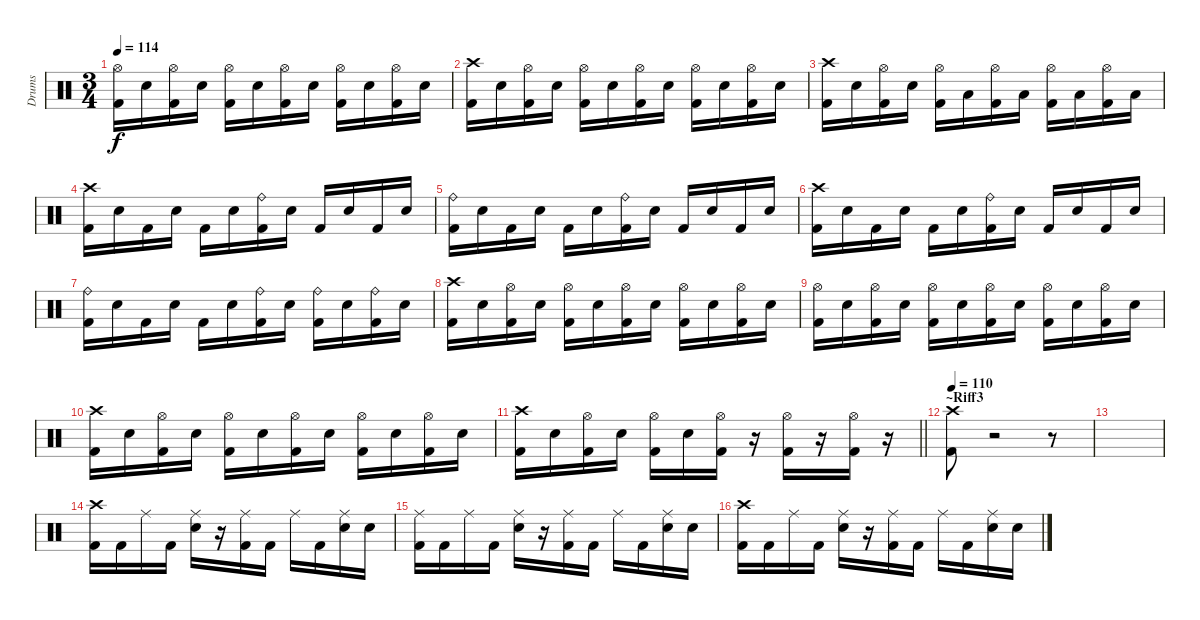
\track ("Drums" "Drums") {instrument percussion}
\staff {score}
\articulation defaults
\ts (3 4)
\tempo 114
\clef neutral
\ks c
("Hi-Hat (open)" "Kick (hit) 2").16{dy f} "Snare (hit) 2".16 ("Hi-Hat (open)" "Kick (hit) 2").16 "Snare (hit) 2".16 ("Hi-Hat (open)" "Kick (hit) 2").16 "Snare (hit) 2".16 ("Hi-Hat (open)" "Kick (hit) 2").16 "Snare (hit) 2".16 ("Hi-Hat (open)" "Kick (hit) 2").16 "Snare (hit) 2".16 ("Hi-Hat (open)" "Kick (hit) 2").16 "Snare (hit) 2".16 |
("Crash high (hit)" "Kick (hit) 2").16 "Snare (hit) 2".16 ("Hi-Hat (open)" "Kick (hit) 2").16 "Snare (hit) 2".16 ("Hi-Hat (open)" "Kick (hit) 2").16 "Snare (hit) 2".16 ("Hi-Hat (open)" "Kick (hit) 2").16 "Snare (hit) 2".16 ("Hi-Hat (open)" "Kick (hit) 2").16 "Snare (hit) 2".16 ("Hi-Hat (open)" "Kick (hit) 2").16 "Snare (hit) 2".16 |
("Crash high (hit)" "Kick (hit) 2").16 "Snare (hit) 2".16 ("Hi-Hat (open)" "Kick (hit) 2").16 "Snare (hit) 2".16 ("Hi-Hat (open)" "Kick (hit) 2").16 "Low Tom (hit)".16 ("Hi-Hat (open)" "Kick (hit) 2").16 "Low Tom (hit)".16 ("Hi-Hat (open)" "Kick (hit) 2").16 "Low Tom (hit)".16 ("Hi-Hat (open)" "Kick (hit) 2").16 "Low Tom (hit)".16 |
("Crash high (hit)" "Kick (hit) 2").16 "Snare (hit) 2".16 "Kick (hit) 2".16 "Snare (hit) 2".16 "Kick (hit) 2".16 "Snare (hit) 2".16 ("Ride (bell)" "Kick (hit) 2").16 "Snare (hit) 2".16 "Kick (hit) 2".16 "Snare (hit) 2".16 "Kick (hit) 2".16 "Snare (hit) 2".16 |
("Ride (bell)" "Kick (hit) 2").16 "Snare (hit) 2".16 "Kick (hit) 2".16 "Snare (hit) 2".16 "Kick (hit) 2".16 "Snare (hit) 2".16 ("Ride (bell)" "Kick (hit) 2").16 "Snare (hit) 2".16 "Kick (hit) 2".16 "Snare (hit) 2".16 "Kick (hit) 2".16 "Snare (hit) 2".16 |
("Crash high (hit)" "Kick (hit) 2").16 "Snare (hit) 2".16 "Kick (hit) 2".16 "Snare (hit) 2".16 "Kick (hit) 2".16 "Snare (hit) 2".16 ("Ride (bell)" "Kick (hit) 2").16 "Snare (hit) 2".16 "Kick (hit) 2".16 "Snare (hit) 2".16 "Kick (hit) 2".16 "Snare (hit) 2".16 |
("Ride (bell)" "Kick (hit) 2").16 "Snare (hit) 2".16 "Kick (hit) 2".16 "Snare (hit) 2".16 "Kick (hit) 2".16 "Snare (hit) 2".16 ("Ride (bell)" "Kick (hit) 2").16 "Snare (hit) 2".16 ("Ride (bell)" "Kick (hit) 2").16 "Snare (hit) 2".16 ("Ride (bell)" "Kick (hit) 2").16 "Snare (hit) 2".16 |
("Crash high (hit)" "Kick (hit) 2").16 "Snare (hit) 2".16 ("Hi-Hat (open)" "Kick (hit) 2").16 "Snare (hit) 2".16 ("Hi-Hat (open)" "Kick (hit) 2").16 "Snare (hit) 2".16 ("Hi-Hat (open)" "Kick (hit) 2").16 "Snare (hit) 2".16 ("Hi-Hat (open)" "Kick (hit) 2").16 "Snare (hit) 2".16 ("Hi-Hat (open)" "Kick (hit) 2").16 "Snare (hit) 2".16 |
("Hi-Hat (open)" "Kick (hit) 2").16 "Snare (hit) 2".16 ("Hi-Hat (open)" "Kick (hit) 2").16 "Snare (hit) 2".16 ("Hi-Hat (open)" "Kick (hit) 2").16 "Snare (hit) 2".16 ("Hi-Hat (open)" "Kick (hit) 2").16 "Snare (hit) 2".16 ("Hi-Hat (open)" "Kick (hit) 2").16 "Snare (hit) 2".16 ("Hi-Hat (open)" "Kick (hit) 2").16 "Snare (hit) 2".16 |
("Crash high (hit)" "Kick (hit) 2").16 "Snare (hit) 2".16 ("Hi-Hat (open)" "Kick (hit) 2").16 "Snare (hit) 2".16 ("Hi-Hat (open)" "Kick (hit) 2").16 "Snare (hit) 2".16 ("Hi-Hat (open)" "Kick (hit) 2").16 "Snare (hit) 2".16 ("Hi-Hat (open)" "Kick (hit) 2").16 "Snare (hit) 2".16 ("Hi-Hat (open)" "Kick (hit) 2").16 "Snare (hit) 2".16 |
\barLineRight lightlight
("Crash high (hit)" "Kick (hit) 2").16 "Snare (hit) 2".16 ("Hi-Hat (open)" "Kick (hit) 2").16 "Snare (hit) 2".16 ("Hi-Hat (open)" "Kick (hit) 2").16 "Snare (hit) 2".16 ("Hi-Hat (open)" "Kick (hit) 2").16 r.16 ("Hi-Hat (open)" "Kick (hit) 2").16 r.16 ("Hi-Hat (open)" "Kick (hit) 2").16 r.16 |
\section ("" "~Riff3")
\tempo 110
("Crash high (hit)" "Kick (hit) 2").8 r.2 r.8 |
|
("Crash high (hit)" "Kick (hit) 2").16 "Kick (hit) 2".16 "Ride (middle)".16 "Kick (hit) 2".16 ("Ride (middle)" "Snare (hit) 2").16 r.16 ("Ride (middle)" "Kick (hit) 2").16 "Kick (hit) 2".16 "Ride (middle)".16 "Kick (hit) 2".16 ("Ride (middle)" "Snare (hit) 2").16 "Snare (hit) 2".16 |
("Ride (middle)" "Kick (hit) 2").16 "Kick (hit) 2".16 "Ride (middle)".16 "Kick (hit) 2".16 ("Ride (middle)" "Snare (hit) 2").16 r.16 ("Ride (middle)" "Kick (hit) 2").16 "Kick (hit) 2".16 "Ride (middle)".16 "Kick (hit) 2".16 ("Ride (middle)" "Snare (hit) 2").16 "Snare (hit) 2".16 |
("Crash high (hit)" "Kick (hit) 2").16 "Kick (hit) 2".16 "Ride (middle)".16 "Kick (hit) 2".16 ("Ride (middle)" "Snare (hit) 2").16 r.16 ("Ride (middle)" "Kick (hit) 2").16 "Kick (hit) 2".16 "Ride (middle)".16 "Kick (hit) 2".16 ("Ride (middle)" "Snare (hit) 2").16 "Snare (hit) 2".16
